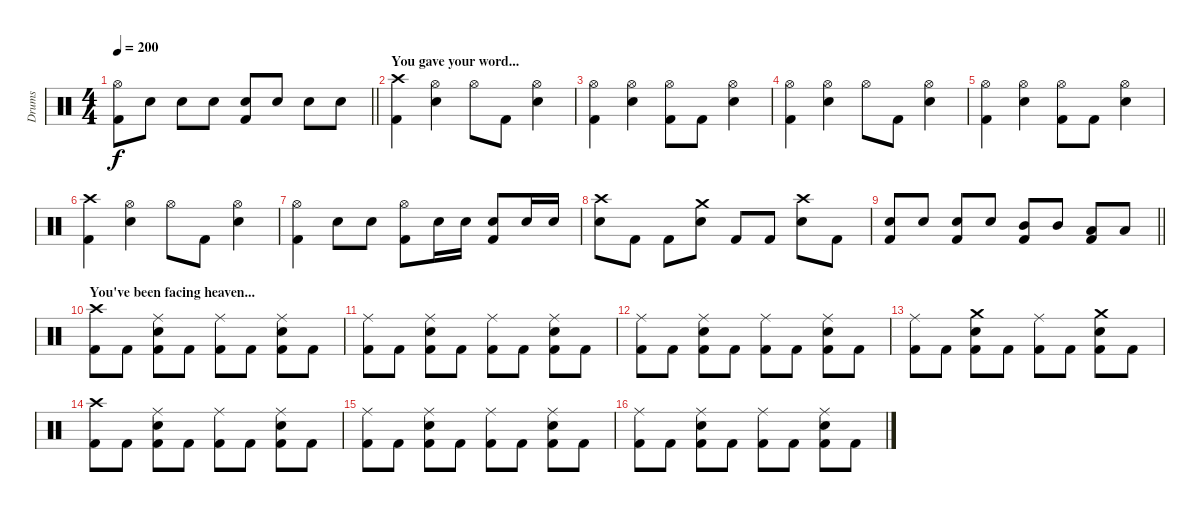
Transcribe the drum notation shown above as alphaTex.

\track ("Drums" "Drums") {instrument percussion}
\staff {score}
\articulation defaults
\ts (4 4)
\tempo 200
\clef neutral
\barLineRight lightlight
\ks c
("Hi-Hat (open)" "Kick (hit) 2").8{dy f} "Snare (hit) 2".8 "Snare (hit) 2".8 "Snare (hit) 2".8 ("Snare (hit) 2" "Kick (hit) 2").8 "Snare (hit) 2".8 "Snare (hit) 2".8 "Snare (hit) 2".8 |
\section ("" "You gave your word...")
("Crash high (hit)" "Kick (hit) 2").4 ("Hi-Hat (open)" "Snare (hit) 2").4 "Hi-Hat (open)".8 "Kick (hit) 2".8 ("Hi-Hat (open)" "Snare (hit) 2").4 |
("Hi-Hat (open)" "Kick (hit) 2").4 ("Hi-Hat (open)" "Snare (hit) 2").4 ("Hi-Hat (open)" "Kick (hit) 2").8 "Kick (hit) 2".8 ("Hi-Hat (open)" "Snare (hit) 2").4 |
("Hi-Hat (open)" "Kick (hit) 2").4 ("Hi-Hat (open)" "Snare (hit) 2").4 "Hi-Hat (open)".8 "Kick (hit) 2".8 ("Hi-Hat (open)" "Snare (hit) 2").4 |
("Hi-Hat (open)" "Kick (hit) 2").4 ("Hi-Hat (open)" "Snare (hit) 2").4 ("Hi-Hat (open)" "Kick (hit) 2").8 "Kick (hit) 2".8 ("Hi-Hat (open)" "Snare (hit) 2").4 |
("Crash high (hit)" "Kick (hit) 2").4 ("Hi-Hat (open)" "Snare (hit) 2").4 "Hi-Hat (open)".8 "Kick (hit) 2".8 ("Hi-Hat (open)" "Snare (hit) 2").4 |
("Hi-Hat (open)" "Kick (hit) 2").4 "Snare (hit) 2".8 "Snare (hit) 2".8 ("Hi-Hat (open)" "Kick (hit) 2").8 "Snare (hit) 2".16 "Snare (hit) 2".16 ("Snare (hit) 2" "Kick (hit) 2").8 "Snare (hit) 2".16 "Snare (hit) 2".16 |
("Crash high (hit)" "Snare (hit) 2").8 "Kick (hit) 2".8 "Kick (hit) 2".8 ("Crash medium (hit)" "Snare (hit) 2").8 "Kick (hit) 2".8 "Kick (hit) 2".8 ("Crash high (hit)" "Snare (hit) 2").8 "Kick (hit) 2".8 |
\barLineRight lightlight
("Snare (hit) 2" "Kick (hit) 2").8 "Snare (hit) 2".8 ("Snare (hit) 2" "Kick (hit) 2").8 "Snare (hit) 2".8 ("Mid Tom (hit)" "Kick (hit) 2").8 "Mid Tom (hit)".8 ("Low Tom (hit)" "Kick (hit) 2").8 "Low Tom (hit)".8 |
\section ("" "You've been facing heaven...")
("Crash high (hit)" "Kick (hit) 2").8 "Kick (hit) 2".8 ("Ride (middle)" "Snare (hit) 2" "Kick (hit) 2").8 "Kick (hit) 2".8 ("Ride (middle)" "Kick (hit) 2").8 "Kick (hit) 2".8 ("Ride (middle)" "Snare (hit) 2" "Kick (hit) 2").8 "Kick (hit) 2".8 |
("Ride (middle)" "Kick (hit) 2").8 "Kick (hit) 2".8 ("Ride (middle)" "Snare (hit) 2" "Kick (hit) 2").8 "Kick (hit) 2".8 ("Ride (middle)" "Kick (hit) 2").8 "Kick (hit) 2".8 ("Ride (middle)" "Snare (hit) 2" "Kick (hit) 2").8 "Kick (hit) 2".8 |
("Ride (middle)" "Kick (hit) 2").8 "Kick (hit) 2".8 ("Ride (middle)" "Snare (hit) 2" "Kick (hit) 2").8 "Kick (hit) 2".8 ("Ride (middle)" "Kick (hit) 2").8 "Kick (hit) 2".8 ("Ride (middle)" "Snare (hit) 2" "Kick (hit) 2").8 "Kick (hit) 2".8 |
("Ride (middle)" "Kick (hit) 2").8 "Kick (hit) 2".8 ("Crash medium (hit)" "Snare (hit) 2" "Kick (hit) 2").8 "Kick (hit) 2".8 ("Ride (middle)" "Kick (hit) 2").8 "Kick (hit) 2".8 ("Crash medium (hit)" "Snare (hit) 2" "Kick (hit) 2").8 "Kick (hit) 2".8 |
("Crash high (hit)" "Kick (hit) 2").8 "Kick (hit) 2".8 ("Ride (middle)" "Snare (hit) 2" "Kick (hit) 2").8 "Kick (hit) 2".8 ("Ride (middle)" "Kick (hit) 2").8 "Kick (hit) 2".8 ("Ride (middle)" "Snare (hit) 2" "Kick (hit) 2").8 "Kick (hit) 2".8 |
("Ride (middle)" "Kick (hit) 2").8 "Kick (hit) 2".8 ("Ride (middle)" "Snare (hit) 2" "Kick (hit) 2").8 "Kick (hit) 2".8 ("Ride (middle)" "Kick (hit) 2").8 "Kick (hit) 2".8 ("Ride (middle)" "Snare (hit) 2" "Kick (hit) 2").8 "Kick (hit) 2".8 |
("Ride (middle)" "Kick (hit) 2").8 "Kick (hit) 2".8 ("Ride (middle)" "Snare (hit) 2" "Kick (hit) 2").8 "Kick (hit) 2".8 ("Ride (middle)" "Kick (hit) 2").8 "Kick (hit) 2".8 ("Ride (middle)" "Snare (hit) 2" "Kick (hit) 2").8 "Kick (hit) 2".8
